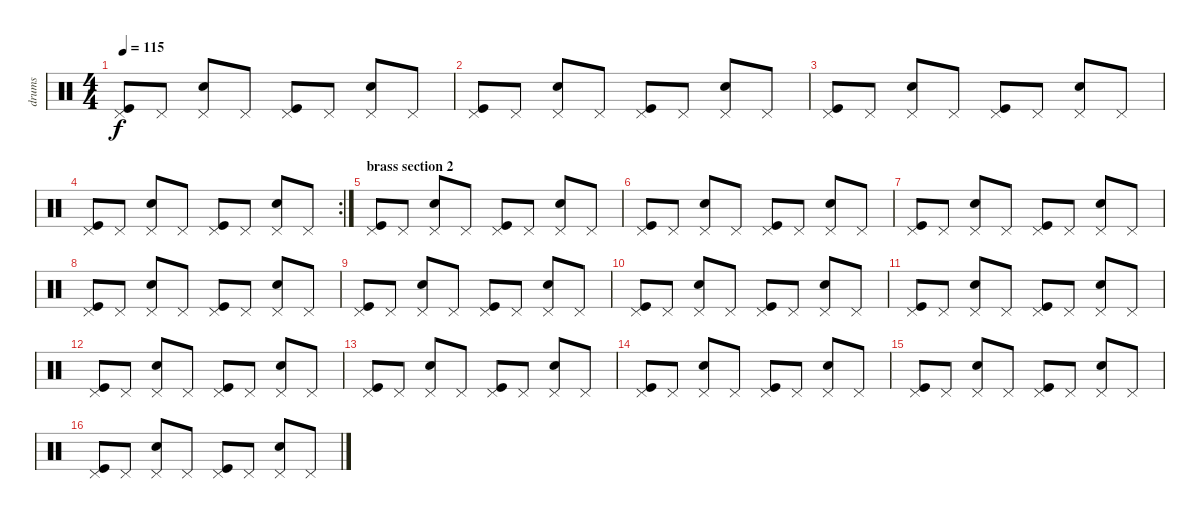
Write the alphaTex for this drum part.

\track ("drums" "drums") {instrument percussion}
\staff {score}
\articulation defaults
\ts (4 4)
\tempo 115
\clef neutral
\ks c
("Pedal Hi-Hat (hit)" "Kick (hit)").8{dy f} "Pedal Hi-Hat (hit)".8 ("Pedal Hi-Hat (hit)" "Electric Snare (hit)").8 "Pedal Hi-Hat (hit)".8 ("Pedal Hi-Hat (hit)" "Kick (hit)").8 "Pedal Hi-Hat (hit)".8 ("Pedal Hi-Hat (hit)" "Electric Snare (hit)").8 "Pedal Hi-Hat (hit)".8 |
("Pedal Hi-Hat (hit)" "Kick (hit)").8 "Pedal Hi-Hat (hit)".8 ("Pedal Hi-Hat (hit)" "Electric Snare (hit)").8 "Pedal Hi-Hat (hit)".8 ("Pedal Hi-Hat (hit)" "Kick (hit)").8 "Pedal Hi-Hat (hit)".8 ("Pedal Hi-Hat (hit)" "Electric Snare (hit)").8 "Pedal Hi-Hat (hit)".8 |
("Pedal Hi-Hat (hit)" "Kick (hit)").8 "Pedal Hi-Hat (hit)".8 ("Pedal Hi-Hat (hit)" "Electric Snare (hit)").8 "Pedal Hi-Hat (hit)".8 ("Pedal Hi-Hat (hit)" "Kick (hit)").8 "Pedal Hi-Hat (hit)".8 ("Pedal Hi-Hat (hit)" "Electric Snare (hit)").8 "Pedal Hi-Hat (hit)".8 |
\rc 2
("Pedal Hi-Hat (hit)" "Kick (hit)").8 "Pedal Hi-Hat (hit)".8 ("Pedal Hi-Hat (hit)" "Electric Snare (hit)").8 "Pedal Hi-Hat (hit)".8 ("Pedal Hi-Hat (hit)" "Kick (hit)").8 "Pedal Hi-Hat (hit)".8 ("Pedal Hi-Hat (hit)" "Electric Snare (hit)").8 "Pedal Hi-Hat (hit)".8 |
\section ("" "brass section 2")
("Pedal Hi-Hat (hit)" "Kick (hit)").8 "Pedal Hi-Hat (hit)".8 ("Pedal Hi-Hat (hit)" "Electric Snare (hit)").8 "Pedal Hi-Hat (hit)".8 ("Pedal Hi-Hat (hit)" "Kick (hit)").8 "Pedal Hi-Hat (hit)".8 ("Pedal Hi-Hat (hit)" "Electric Snare (hit)").8 "Pedal Hi-Hat (hit)".8 |
("Pedal Hi-Hat (hit)" "Kick (hit)").8 "Pedal Hi-Hat (hit)".8 ("Pedal Hi-Hat (hit)" "Electric Snare (hit)").8 "Pedal Hi-Hat (hit)".8 ("Pedal Hi-Hat (hit)" "Kick (hit)").8 "Pedal Hi-Hat (hit)".8 ("Pedal Hi-Hat (hit)" "Electric Snare (hit)").8 "Pedal Hi-Hat (hit)".8 |
("Pedal Hi-Hat (hit)" "Kick (hit)").8 "Pedal Hi-Hat (hit)".8 ("Pedal Hi-Hat (hit)" "Electric Snare (hit)").8 "Pedal Hi-Hat (hit)".8 ("Pedal Hi-Hat (hit)" "Kick (hit)").8 "Pedal Hi-Hat (hit)".8 ("Pedal Hi-Hat (hit)" "Electric Snare (hit)").8 "Pedal Hi-Hat (hit)".8 |
("Pedal Hi-Hat (hit)" "Kick (hit)").8 "Pedal Hi-Hat (hit)".8 ("Pedal Hi-Hat (hit)" "Electric Snare (hit)").8 "Pedal Hi-Hat (hit)".8 ("Pedal Hi-Hat (hit)" "Kick (hit)").8 "Pedal Hi-Hat (hit)".8 ("Pedal Hi-Hat (hit)" "Electric Snare (hit)").8 "Pedal Hi-Hat (hit)".8 |
("Pedal Hi-Hat (hit)" "Kick (hit)").8 "Pedal Hi-Hat (hit)".8 ("Pedal Hi-Hat (hit)" "Electric Snare (hit)").8 "Pedal Hi-Hat (hit)".8 ("Pedal Hi-Hat (hit)" "Kick (hit)").8 "Pedal Hi-Hat (hit)".8 ("Pedal Hi-Hat (hit)" "Electric Snare (hit)").8 "Pedal Hi-Hat (hit)".8 |
("Pedal Hi-Hat (hit)" "Kick (hit)").8 "Pedal Hi-Hat (hit)".8 ("Pedal Hi-Hat (hit)" "Electric Snare (hit)").8 "Pedal Hi-Hat (hit)".8 ("Pedal Hi-Hat (hit)" "Kick (hit)").8 "Pedal Hi-Hat (hit)".8 ("Pedal Hi-Hat (hit)" "Electric Snare (hit)").8 "Pedal Hi-Hat (hit)".8 |
("Pedal Hi-Hat (hit)" "Kick (hit)").8 "Pedal Hi-Hat (hit)".8 ("Pedal Hi-Hat (hit)" "Electric Snare (hit)").8 "Pedal Hi-Hat (hit)".8 ("Pedal Hi-Hat (hit)" "Kick (hit)").8 "Pedal Hi-Hat (hit)".8 ("Pedal Hi-Hat (hit)" "Electric Snare (hit)").8 "Pedal Hi-Hat (hit)".8 |
("Pedal Hi-Hat (hit)" "Kick (hit)").8 "Pedal Hi-Hat (hit)".8 ("Pedal Hi-Hat (hit)" "Electric Snare (hit)").8 "Pedal Hi-Hat (hit)".8 ("Pedal Hi-Hat (hit)" "Kick (hit)").8 "Pedal Hi-Hat (hit)".8 ("Pedal Hi-Hat (hit)" "Electric Snare (hit)").8 "Pedal Hi-Hat (hit)".8 |
("Pedal Hi-Hat (hit)" "Kick (hit)").8 "Pedal Hi-Hat (hit)".8 ("Pedal Hi-Hat (hit)" "Electric Snare (hit)").8 "Pedal Hi-Hat (hit)".8 ("Pedal Hi-Hat (hit)" "Kick (hit)").8 "Pedal Hi-Hat (hit)".8 ("Pedal Hi-Hat (hit)" "Electric Snare (hit)").8 "Pedal Hi-Hat (hit)".8 |
("Pedal Hi-Hat (hit)" "Kick (hit)").8 "Pedal Hi-Hat (hit)".8 ("Pedal Hi-Hat (hit)" "Electric Snare (hit)").8 "Pedal Hi-Hat (hit)".8 ("Pedal Hi-Hat (hit)" "Kick (hit)").8 "Pedal Hi-Hat (hit)".8 ("Pedal Hi-Hat (hit)" "Electric Snare (hit)").8 "Pedal Hi-Hat (hit)".8 |
("Pedal Hi-Hat (hit)" "Kick (hit)").8 "Pedal Hi-Hat (hit)".8 ("Pedal Hi-Hat (hit)" "Electric Snare (hit)").8 "Pedal Hi-Hat (hit)".8 ("Pedal Hi-Hat (hit)" "Kick (hit)").8 "Pedal Hi-Hat (hit)".8 ("Pedal Hi-Hat (hit)" "Electric Snare (hit)").8 "Pedal Hi-Hat (hit)".8 |
("Pedal Hi-Hat (hit)" "Kick (hit)").8 "Pedal Hi-Hat (hit)".8 ("Pedal Hi-Hat (hit)" "Electric Snare (hit)").8 "Pedal Hi-Hat (hit)".8 ("Pedal Hi-Hat (hit)" "Kick (hit)").8 "Pedal Hi-Hat (hit)".8 ("Pedal Hi-Hat (hit)" "Electric Snare (hit)").8 "Pedal Hi-Hat (hit)".8
